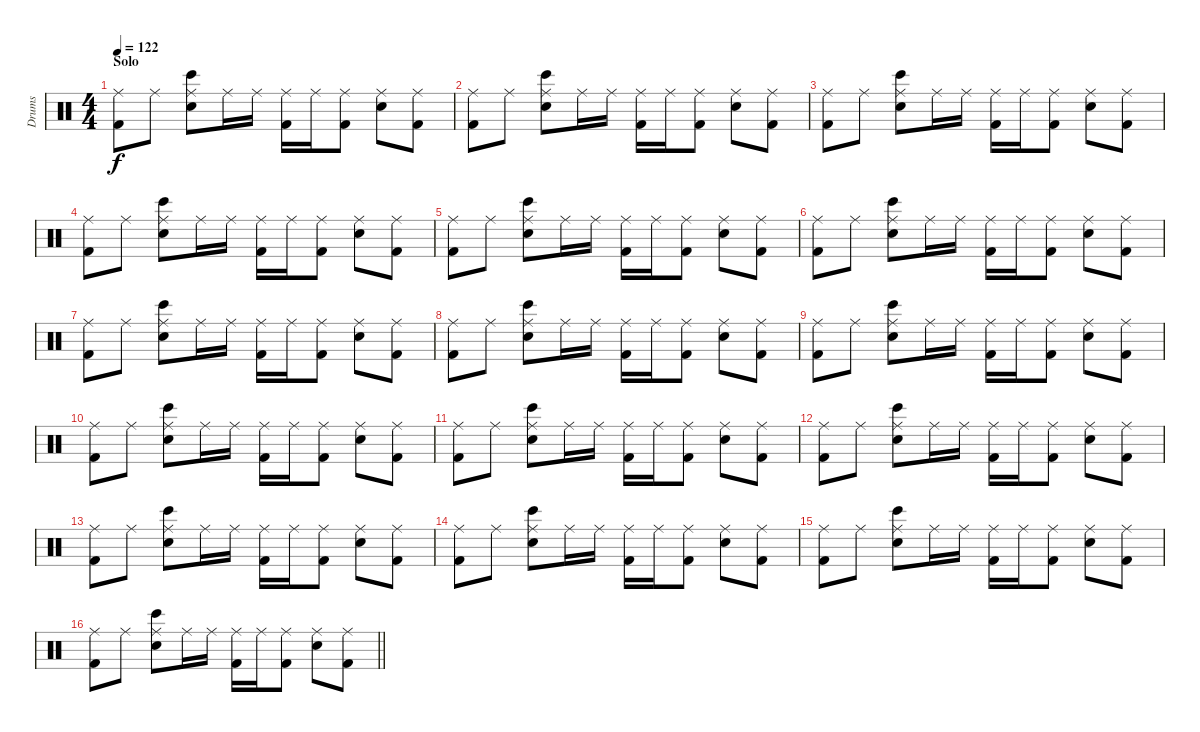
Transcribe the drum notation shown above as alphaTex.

\track ("Drums" "Drums") {instrument percussion}
\staff {score}
\articulation defaults
\ts (4 4)
\section ("" "Solo")
\tempo 122
\clef neutral
\ks c
("Ride (middle)" "Kick (hit) 2").8{dy f} "Ride (middle)".8 ("Ride (middle)" "Bongo High (hit)" "Hand Clap (hit)").8 "Ride (middle)".16 "Ride (middle)".16 ("Ride (middle)" "Kick (hit) 2").16 "Ride (middle)".16 ("Ride (middle)" "Kick (hit) 2").8 ("Ride (middle)" "Snare (hit) 2").8 ("Ride (middle)" "Kick (hit) 2").8 |
("Ride (middle)" "Kick (hit) 2").8 "Ride (middle)".8 ("Ride (middle)" "Bongo High (hit)" "Hand Clap (hit)").8 "Ride (middle)".16 "Ride (middle)".16 ("Ride (middle)" "Kick (hit) 2").16 "Ride (middle)".16 ("Ride (middle)" "Kick (hit) 2").8 ("Ride (middle)" "Snare (hit) 2").8 ("Ride (middle)" "Kick (hit) 2").8 |
("Ride (middle)" "Kick (hit) 2").8 "Ride (middle)".8 ("Ride (middle)" "Bongo High (hit)" "Hand Clap (hit)").8 "Ride (middle)".16 "Ride (middle)".16 ("Ride (middle)" "Kick (hit) 2").16 "Ride (middle)".16 ("Ride (middle)" "Kick (hit) 2").8 ("Ride (middle)" "Snare (hit) 2").8 ("Ride (middle)" "Kick (hit) 2").8 |
("Ride (middle)" "Kick (hit) 2").8 "Ride (middle)".8 ("Ride (middle)" "Bongo High (hit)" "Hand Clap (hit)").8 "Ride (middle)".16 "Ride (middle)".16 ("Ride (middle)" "Kick (hit) 2").16 "Ride (middle)".16 ("Ride (middle)" "Kick (hit) 2").8 ("Ride (middle)" "Snare (hit) 2").8 ("Ride (middle)" "Kick (hit) 2").8 |
("Ride (middle)" "Kick (hit) 2").8 "Ride (middle)".8 ("Ride (middle)" "Bongo High (hit)" "Hand Clap (hit)").8 "Ride (middle)".16 "Ride (middle)".16 ("Ride (middle)" "Kick (hit) 2").16 "Ride (middle)".16 ("Ride (middle)" "Kick (hit) 2").8 ("Ride (middle)" "Snare (hit) 2").8 ("Ride (middle)" "Kick (hit) 2").8 |
("Ride (middle)" "Kick (hit) 2").8 "Ride (middle)".8 ("Ride (middle)" "Bongo High (hit)" "Hand Clap (hit)").8 "Ride (middle)".16 "Ride (middle)".16 ("Ride (middle)" "Kick (hit) 2").16 "Ride (middle)".16 ("Ride (middle)" "Kick (hit) 2").8 ("Ride (middle)" "Snare (hit) 2").8 ("Ride (middle)" "Kick (hit) 2").8 |
("Ride (middle)" "Kick (hit) 2").8 "Ride (middle)".8 ("Ride (middle)" "Bongo High (hit)" "Hand Clap (hit)").8 "Ride (middle)".16 "Ride (middle)".16 ("Ride (middle)" "Kick (hit) 2").16 "Ride (middle)".16 ("Ride (middle)" "Kick (hit) 2").8 ("Ride (middle)" "Snare (hit) 2").8 ("Ride (middle)" "Kick (hit) 2").8 |
("Ride (middle)" "Kick (hit) 2").8 "Ride (middle)".8 ("Ride (middle)" "Bongo High (hit)" "Hand Clap (hit)").8 "Ride (middle)".16 "Ride (middle)".16 ("Ride (middle)" "Kick (hit) 2").16 "Ride (middle)".16 ("Ride (middle)" "Kick (hit) 2").8 ("Ride (middle)" "Snare (hit) 2").8 ("Ride (middle)" "Kick (hit) 2").8 |
("Ride (middle)" "Kick (hit) 2").8 "Ride (middle)".8 ("Ride (middle)" "Bongo High (hit)" "Hand Clap (hit)").8 "Ride (middle)".16 "Ride (middle)".16 ("Ride (middle)" "Kick (hit) 2").16 "Ride (middle)".16 ("Ride (middle)" "Kick (hit) 2").8 ("Ride (middle)" "Snare (hit) 2").8 ("Ride (middle)" "Kick (hit) 2").8 |
("Ride (middle)" "Kick (hit) 2").8 "Ride (middle)".8 ("Ride (middle)" "Bongo High (hit)" "Hand Clap (hit)").8 "Ride (middle)".16 "Ride (middle)".16 ("Ride (middle)" "Kick (hit) 2").16 "Ride (middle)".16 ("Ride (middle)" "Kick (hit) 2").8 ("Ride (middle)" "Snare (hit) 2").8 ("Ride (middle)" "Kick (hit) 2").8 |
("Ride (middle)" "Kick (hit) 2").8 "Ride (middle)".8 ("Ride (middle)" "Bongo High (hit)" "Hand Clap (hit)").8 "Ride (middle)".16 "Ride (middle)".16 ("Ride (middle)" "Kick (hit) 2").16 "Ride (middle)".16 ("Ride (middle)" "Kick (hit) 2").8 ("Ride (middle)" "Snare (hit) 2").8 ("Ride (middle)" "Kick (hit) 2").8 |
("Ride (middle)" "Kick (hit) 2").8 "Ride (middle)".8 ("Ride (middle)" "Bongo High (hit)" "Hand Clap (hit)").8 "Ride (middle)".16 "Ride (middle)".16 ("Ride (middle)" "Kick (hit) 2").16 "Ride (middle)".16 ("Ride (middle)" "Kick (hit) 2").8 ("Ride (middle)" "Snare (hit) 2").8 ("Ride (middle)" "Kick (hit) 2").8 |
("Ride (middle)" "Kick (hit) 2").8 "Ride (middle)".8 ("Ride (middle)" "Bongo High (hit)" "Hand Clap (hit)").8 "Ride (middle)".16 "Ride (middle)".16 ("Ride (middle)" "Kick (hit) 2").16 "Ride (middle)".16 ("Ride (middle)" "Kick (hit) 2").8 ("Ride (middle)" "Snare (hit) 2").8 ("Ride (middle)" "Kick (hit) 2").8 |
("Ride (middle)" "Kick (hit) 2").8 "Ride (middle)".8 ("Ride (middle)" "Bongo High (hit)" "Hand Clap (hit)").8 "Ride (middle)".16 "Ride (middle)".16 ("Ride (middle)" "Kick (hit) 2").16 "Ride (middle)".16 ("Ride (middle)" "Kick (hit) 2").8 ("Ride (middle)" "Snare (hit) 2").8 ("Ride (middle)" "Kick (hit) 2").8 |
("Ride (middle)" "Kick (hit) 2").8 "Ride (middle)".8 ("Ride (middle)" "Bongo High (hit)" "Hand Clap (hit)").8 "Ride (middle)".16 "Ride (middle)".16 ("Ride (middle)" "Kick (hit) 2").16 "Ride (middle)".16 ("Ride (middle)" "Kick (hit) 2").8 ("Ride (middle)" "Snare (hit) 2").8 ("Ride (middle)" "Kick (hit) 2").8 |
\barLineRight lightlight
("Ride (middle)" "Kick (hit) 2").8 "Ride (middle)".8 ("Ride (middle)" "Bongo High (hit)" "Hand Clap (hit)").8 "Ride (middle)".16 "Ride (middle)".16 ("Ride (middle)" "Kick (hit) 2").16 "Ride (middle)".16 ("Ride (middle)" "Kick (hit) 2").8 ("Ride (middle)" "Snare (hit) 2").8 ("Ride (middle)" "Kick (hit) 2").8
